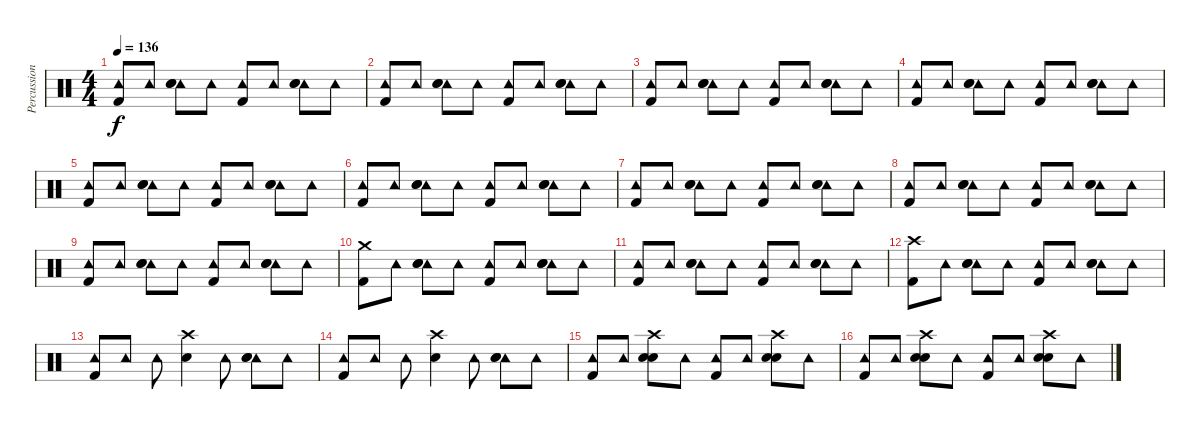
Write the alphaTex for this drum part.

\track ("Percussion" "Percussion") {instrument percussion}
\staff {score}
\articulation defaults
\ts (4 4)
\tempo 136
\clef neutral
\ks c
("Tambourine (hit)" "Kick (hit) 2").8{dy f} "Tambourine (hit)".8 ("Tambourine (hit)" "Snare (hit) 2" "Hand Clap (hit)").8 "Tambourine (hit)".8 ("Tambourine (hit)" "Kick (hit) 2").8 "Tambourine (hit)".8 ("Tambourine (hit)" "Snare (hit) 2" "Hand Clap (hit)").8 "Tambourine (hit)".8 |
("Tambourine (hit)" "Kick (hit) 2").8 "Tambourine (hit)".8 ("Tambourine (hit)" "Snare (hit) 2" "Hand Clap (hit)").8 "Tambourine (hit)".8 ("Tambourine (hit)" "Kick (hit) 2").8 "Tambourine (hit)".8 ("Tambourine (hit)" "Snare (hit) 2" "Hand Clap (hit)").8 "Tambourine (hit)".8 |
("Tambourine (hit)" "Kick (hit) 2").8 "Tambourine (hit)".8 ("Tambourine (hit)" "Snare (hit) 2" "Hand Clap (hit)").8 "Tambourine (hit)".8 ("Tambourine (hit)" "Kick (hit) 2").8 "Tambourine (hit)".8 ("Tambourine (hit)" "Snare (hit) 2" "Hand Clap (hit)").8 "Tambourine (hit)".8 |
("Tambourine (hit)" "Kick (hit) 2").8 "Tambourine (hit)".8 ("Tambourine (hit)" "Snare (hit) 2" "Hand Clap (hit)").8 "Tambourine (hit)".8 ("Tambourine (hit)" "Kick (hit) 2").8 "Tambourine (hit)".8 ("Tambourine (hit)" "Snare (hit) 2" "Hand Clap (hit)").8 "Tambourine (hit)".8 |
("Tambourine (hit)" "Kick (hit) 2").8 "Tambourine (hit)".8 ("Tambourine (hit)" "Snare (hit) 2" "Hand Clap (hit)").8 "Tambourine (hit)".8 ("Tambourine (hit)" "Kick (hit) 2").8 "Tambourine (hit)".8 ("Tambourine (hit)" "Snare (hit) 2" "Hand Clap (hit)").8 "Tambourine (hit)".8 |
("Tambourine (hit)" "Kick (hit) 2").8 "Tambourine (hit)".8 ("Tambourine (hit)" "Snare (hit) 2" "Hand Clap (hit)").8 "Tambourine (hit)".8 ("Tambourine (hit)" "Kick (hit) 2").8 "Tambourine (hit)".8 ("Tambourine (hit)" "Snare (hit) 2" "Hand Clap (hit)").8 "Tambourine (hit)".8 |
("Tambourine (hit)" "Kick (hit) 2").8 "Tambourine (hit)".8 ("Tambourine (hit)" "Snare (hit) 2" "Hand Clap (hit)").8 "Tambourine (hit)".8 ("Tambourine (hit)" "Kick (hit) 2").8 "Tambourine (hit)".8 ("Tambourine (hit)" "Snare (hit) 2" "Hand Clap (hit)").8 "Tambourine (hit)".8 |
("Tambourine (hit)" "Kick (hit) 2").8 "Tambourine (hit)".8 ("Tambourine (hit)" "Snare (hit) 2" "Hand Clap (hit)").8 "Tambourine (hit)".8 ("Tambourine (hit)" "Kick (hit) 2").8 "Tambourine (hit)".8 ("Tambourine (hit)" "Snare (hit) 2" "Hand Clap (hit)").8 "Tambourine (hit)".8 |
("Tambourine (hit)" "Kick (hit) 2").8 "Tambourine (hit)".8 ("Tambourine (hit)" "Snare (hit) 2" "Hand Clap (hit)").8 "Tambourine (hit)".8 ("Tambourine (hit)" "Kick (hit) 2").8 "Tambourine (hit)".8 ("Tambourine (hit)" "Snare (hit) 2" "Hand Clap (hit)").8 "Tambourine (hit)".8 |
("Crash medium (hit)" "Kick (hit) 2").8 "Tambourine (hit)".8 ("Tambourine (hit)" "Snare (hit) 2" "Hand Clap (hit)").8 "Tambourine (hit)".8 ("Tambourine (hit)" "Kick (hit) 2").8 "Tambourine (hit)".8 ("Tambourine (hit)" "Snare (hit) 2" "Hand Clap (hit)").8 "Tambourine (hit)".8 |
("Tambourine (hit)" "Kick (hit) 2").8 "Tambourine (hit)".8 ("Tambourine (hit)" "Snare (hit) 2" "Hand Clap (hit)").8 "Tambourine (hit)".8 ("Tambourine (hit)" "Kick (hit) 2").8 "Tambourine (hit)".8 ("Tambourine (hit)" "Snare (hit) 2" "Hand Clap (hit)").8 "Tambourine (hit)".8 |
("Crash high (hit)" "Kick (hit) 2").8 "Tambourine (hit)".8 ("Tambourine (hit)" "Snare (hit) 2" "Hand Clap (hit)").8 "Tambourine (hit)".8 ("Tambourine (hit)" "Kick (hit) 2").8 "Tambourine (hit)".8 ("Tambourine (hit)" "Snare (hit) 2" "Hand Clap (hit)").8 "Tambourine (hit)".8 |
("Tambourine (hit)" "Kick (hit) 2").8 "Tambourine (hit)".8 "Tambourine (hit)".8 ("Crash high (hit)" "Snare (hit) 2").4 "Tambourine (hit)".8 ("Tambourine (hit)" "Snare (hit) 2" "Hand Clap (hit)").8 "Tambourine (hit)".8 |
("Tambourine (hit)" "Kick (hit) 2").8 "Tambourine (hit)".8 "Tambourine (hit)".8 ("Crash high (hit)" "Snare (hit) 2").4 "Tambourine (hit)".8 ("Tambourine (hit)" "Snare (hit) 2" "Hand Clap (hit)").8 "Tambourine (hit)".8 |
("Tambourine (hit)" "Kick (hit) 2").8 "Tambourine (hit)".8 ("Crash high (hit)" "Snare (hit) 2" "Hand Clap (hit)").8 "Tambourine (hit)".8 ("Tambourine (hit)" "Kick (hit) 2").8 "Tambourine (hit)".8 ("Crash high (hit)" "Snare (hit) 2" "Hand Clap (hit)").8 "Tambourine (hit)".8 |
("Tambourine (hit)" "Kick (hit) 2").8 "Tambourine (hit)".8 ("Crash high (hit)" "Snare (hit) 2" "Hand Clap (hit)").8 "Tambourine (hit)".8 ("Tambourine (hit)" "Kick (hit) 2").8 "Tambourine (hit)".8 ("Crash high (hit)" "Snare (hit) 2" "Hand Clap (hit)").8 "Tambourine (hit)".8
